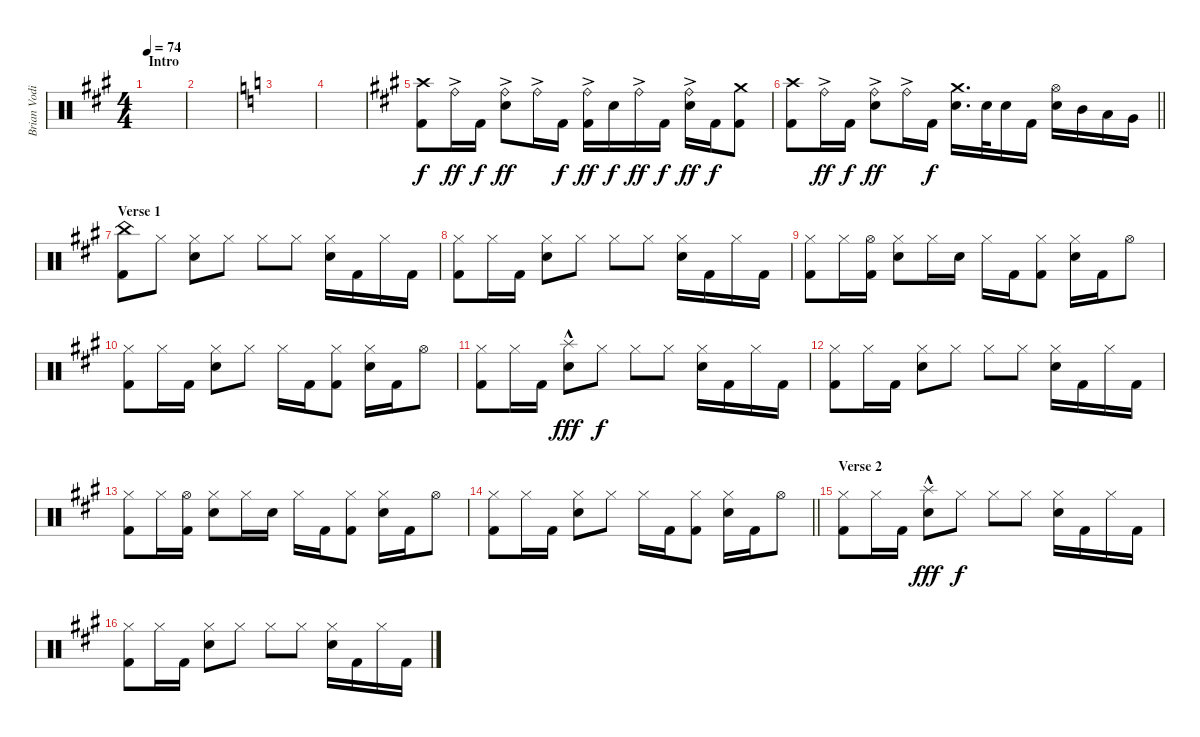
\track ("Brian Vodinh" "Brian Vodi") {instrument percussion}
\staff {score}
\articulation defaults
\ts (4 4)
\section ("" "Intro")
\tempo 74
\clef neutral
\ks f#minor
|
|
\ks c
|
|
\ks f#minor
("Crash high (hit)" "Kick (hit) 2").8 "Ride (bell)"{ac}.16{dy ff} "Kick (hit) 2".16{dy f} ("Ride (bell)"{ac} "Electric Snare (hit)").8{dy ff} "Ride (bell)"{ac}.16 "Kick (hit) 2".16{dy f} ("Ride (bell)"{ac} "Kick (hit) 2").16{dy ff} "Electric Snare (hit)".16{dy f} "Ride (bell)"{ac}.16{dy ff} "Kick (hit) 2".16{dy f} ("Ride (bell)"{ac} "Electric Snare (hit)").16{dy ff} "Kick (hit) 2".16{dy f} ("Crash medium (hit)" "Kick (hit) 2").8 |
\barLineRight lightlight
("Crash high (hit)" "Kick (hit) 2").8 "Ride (bell)"{ac}.16{dy ff} "Kick (hit) 2".16{dy f} ("Ride (bell)"{ac} "Electric Snare (hit)").8{dy ff} "Ride (bell)"{ac}.16 "Kick (hit) 2".16{dy f} ("Crash medium (hit)" "Electric Snare (hit)").16{d} "Electric Snare (hit)".32 "Electric Snare (hit)".16 "Kick (hit) 2".16 ("Hi-Hat (open)" "Electric Snare (hit)").16 "Mid Tom (hit)".16 "Low Tom (hit)".16 "Very Low Tom (hit)".16 |
\section ("" "Verse 1")
("China (hit)" "Kick (hit) 2").8 "Hi-Hat (closed)".8 ("Hi-Hat (closed)" "Electric Snare (hit)").8 "Hi-Hat (closed)".8 "Hi-Hat (closed)".8 "Hi-Hat (closed)".8 ("Hi-Hat (closed)" "Electric Snare (hit)").16 "Kick (hit) 2".16 "Hi-Hat (closed)".16 "Kick (hit) 2".16 |
("Hi-Hat (closed)" "Kick (hit) 2").8 "Hi-Hat (closed)".16 "Kick (hit) 2".16 ("Hi-Hat (closed)" "Electric Snare (hit)").8 "Hi-Hat (closed)".8 "Hi-Hat (closed)".8 "Hi-Hat (closed)".8 ("Hi-Hat (closed)" "Electric Snare (hit)").16 "Kick (hit) 2".16 "Hi-Hat (closed)".16 "Kick (hit) 2".16 |
("Hi-Hat (closed)" "Kick (hit) 2").8 "Hi-Hat (closed)".16 ("Hi-Hat (open)" "Kick (hit) 2").16 ("Hi-Hat (closed)" "Electric Snare (hit)").8 "Hi-Hat (closed)".16 "Electric Snare (hit)".16 "Hi-Hat (closed)".16 "Kick (hit) 2".16 ("Hi-Hat (closed)" "Kick (hit) 2").8 ("Hi-Hat (closed)" "Electric Snare (hit)").16 "Kick (hit) 2".16 "Hi-Hat (open)".8 |
("Hi-Hat (closed)" "Kick (hit) 2").8 "Hi-Hat (closed)".16 "Kick (hit) 2".16 ("Hi-Hat (closed)" "Electric Snare (hit)").8 "Hi-Hat (closed)".8 "Hi-Hat (closed)".16 "Kick (hit) 2".16 ("Hi-Hat (closed)" "Kick (hit) 2").8 ("Hi-Hat (closed)" "Electric Snare (hit)").16 "Kick (hit) 2".16 "Hi-Hat (open)".8 |
("Hi-Hat (closed)" "Kick (hit) 2").8 "Hi-Hat (closed)".16 "Kick (hit) 2".16 ("Splash (hit)"{hac} "Electric Snare (hit)").8{dy fff} "Hi-Hat (closed)".8{dy f} "Hi-Hat (closed)".8 "Hi-Hat (closed)".8 ("Hi-Hat (closed)" "Electric Snare (hit)").16 "Kick (hit) 2".16 "Hi-Hat (closed)".16 "Kick (hit) 2".16 |
("Hi-Hat (closed)" "Kick (hit) 2").8 "Hi-Hat (closed)".16 "Kick (hit) 2".16 ("Hi-Hat (closed)" "Electric Snare (hit)").8 "Hi-Hat (closed)".8 "Hi-Hat (closed)".8 "Hi-Hat (closed)".8 ("Hi-Hat (closed)" "Electric Snare (hit)").16 "Kick (hit) 2".16 "Hi-Hat (closed)".16 "Kick (hit) 2".16 |
("Hi-Hat (closed)" "Kick (hit) 2").8 "Hi-Hat (closed)".16 ("Hi-Hat (open)" "Kick (hit) 2").16 ("Hi-Hat (closed)" "Electric Snare (hit)").8 "Hi-Hat (closed)".16 "Electric Snare (hit)".16 "Hi-Hat (closed)".16 "Kick (hit) 2".16 ("Hi-Hat (closed)" "Kick (hit) 2").8 ("Hi-Hat (closed)" "Electric Snare (hit)").16 "Kick (hit) 2".16 "Hi-Hat (open)".8 |
\barLineRight lightlight
("Hi-Hat (closed)" "Kick (hit) 2").8 "Hi-Hat (closed)".16 "Kick (hit) 2".16 ("Hi-Hat (closed)" "Electric Snare (hit)").8 "Hi-Hat (closed)".8 "Hi-Hat (closed)".16 "Kick (hit) 2".16 ("Hi-Hat (closed)" "Kick (hit) 2").8 ("Hi-Hat (closed)" "Electric Snare (hit)").16 "Kick (hit) 2".16 "Hi-Hat (open)".8 |
\section ("" "Verse 2")
("Hi-Hat (closed)" "Kick (hit) 2").8 "Hi-Hat (closed)".16 "Kick (hit) 2".16 ("Splash (hit)"{hac} "Electric Snare (hit)").8{dy fff} "Hi-Hat (closed)".8{dy f} "Hi-Hat (closed)".8 "Hi-Hat (closed)".8 ("Hi-Hat (closed)" "Electric Snare (hit)").16 "Kick (hit) 2".16 "Hi-Hat (closed)".16 "Kick (hit) 2".16 |
("Hi-Hat (closed)" "Kick (hit) 2").8 "Hi-Hat (closed)".16 "Kick (hit) 2".16 ("Hi-Hat (closed)" "Electric Snare (hit)").8 "Hi-Hat (closed)".8 "Hi-Hat (closed)".8 "Hi-Hat (closed)".8 ("Hi-Hat (closed)" "Electric Snare (hit)").16 "Kick (hit) 2".16 "Hi-Hat (closed)".16 "Kick (hit) 2".16
